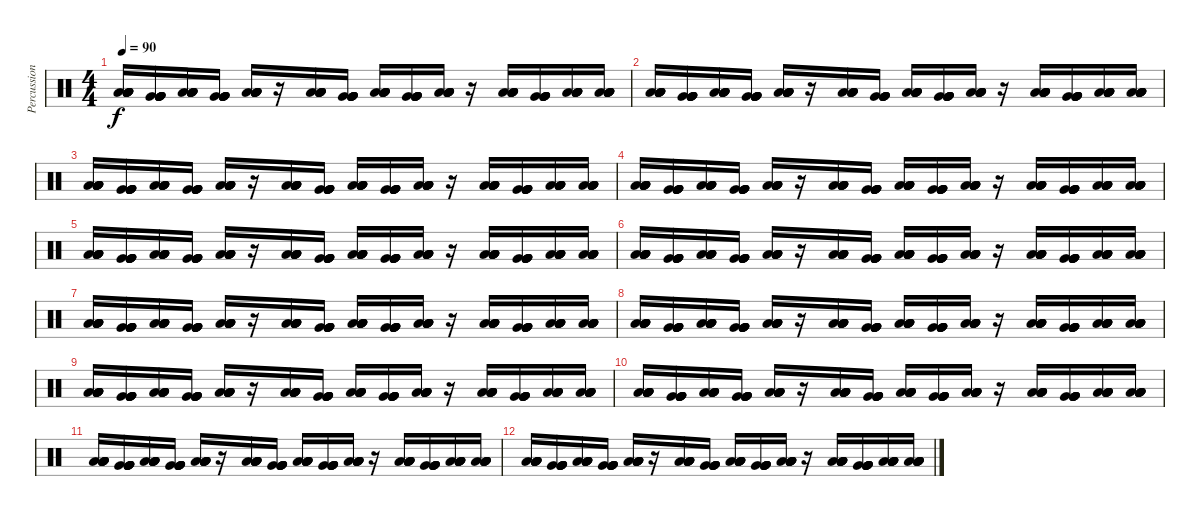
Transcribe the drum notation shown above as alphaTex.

\track ("Percussion 1" "Percussion") {instrument percussion}
\staff {score}
\articulation defaults
\ts (4 4)
\tempo 90
\clef neutral
\ks c
("Low Floor Tom (hit)" "Low Floor Tom (hit)" "Low Floor Tom (hit)" "Low Floor Tom (hit)" "Low Floor Tom (hit)" "Low Floor Tom (hit)").16{dy f} ("Very Low Tom (hit)" "Very Low Tom (hit)" "Very Low Tom (hit)" "Very Low Tom (hit)" "Very Low Tom (hit)" "Very Low Tom (hit)").16 ("Low Floor Tom (hit)" "Low Floor Tom (hit)" "Low Floor Tom (hit)" "Low Floor Tom (hit)" "Low Floor Tom (hit)" "Low Floor Tom (hit)").16 ("Very Low Tom (hit)" "Very Low Tom (hit)" "Very Low Tom (hit)" "Very Low Tom (hit)" "Very Low Tom (hit)" "Very Low Tom (hit)").16 ("Low Floor Tom (hit)" "Low Floor Tom (hit)" "Low Floor Tom (hit)" "Low Floor Tom (hit)" "Low Floor Tom (hit)" "Low Floor Tom (hit)").16 r.16 ("Low Floor Tom (hit)" "Low Floor Tom (hit)" "Low Floor Tom (hit)" "Low Floor Tom (hit)" "Low Floor Tom (hit)" "Low Floor Tom (hit)").16 ("Very Low Tom (hit)" "Very Low Tom (hit)" "Very Low Tom (hit)" "Very Low Tom (hit)" "Very Low Tom (hit)" "Very Low Tom (hit)").16 ("Low Floor Tom (hit)" "Low Floor Tom (hit)" "Low Floor Tom (hit)" "Low Floor Tom (hit)" "Low Floor Tom (hit)" "Low Floor Tom (hit)").16 ("Very Low Tom (hit)" "Very Low Tom (hit)" "Very Low Tom (hit)" "Very Low Tom (hit)" "Very Low Tom (hit)" "Very Low Tom (hit)").16 ("Low Floor Tom (hit)" "Low Floor Tom (hit)" "Low Floor Tom (hit)" "Low Floor Tom (hit)" "Low Floor Tom (hit)" "Low Floor Tom (hit)").16 r.16 ("Low Floor Tom (hit)" "Low Floor Tom (hit)" "Low Floor Tom (hit)" "Low Floor Tom (hit)" "Low Floor Tom (hit)" "Low Floor Tom (hit)").16 ("Very Low Tom (hit)" "Very Low Tom (hit)" "Very Low Tom (hit)" "Very Low Tom (hit)" "Very Low Tom (hit)" "Very Low Tom (hit)").16 ("Low Floor Tom (hit)" "Low Floor Tom (hit)" "Low Floor Tom (hit)" "Low Floor Tom (hit)" "Low Floor Tom (hit)" "Low Floor Tom (hit)").16 ("Low Floor Tom (hit)" "Low Floor Tom (hit)" "Low Floor Tom (hit)" "Low Floor Tom (hit)" "Low Floor Tom (hit)" "Low Floor Tom (hit)").16 |
("Low Floor Tom (hit)" "Low Floor Tom (hit)" "Low Floor Tom (hit)" "Low Floor Tom (hit)" "Low Floor Tom (hit)" "Low Floor Tom (hit)").16 ("Very Low Tom (hit)" "Very Low Tom (hit)" "Very Low Tom (hit)" "Very Low Tom (hit)" "Very Low Tom (hit)" "Very Low Tom (hit)").16 ("Low Floor Tom (hit)" "Low Floor Tom (hit)" "Low Floor Tom (hit)" "Low Floor Tom (hit)" "Low Floor Tom (hit)" "Low Floor Tom (hit)").16 ("Very Low Tom (hit)" "Very Low Tom (hit)" "Very Low Tom (hit)" "Very Low Tom (hit)" "Very Low Tom (hit)" "Very Low Tom (hit)").16 ("Low Floor Tom (hit)" "Low Floor Tom (hit)" "Low Floor Tom (hit)" "Low Floor Tom (hit)" "Low Floor Tom (hit)" "Low Floor Tom (hit)").16 r.16 ("Low Floor Tom (hit)" "Low Floor Tom (hit)" "Low Floor Tom (hit)" "Low Floor Tom (hit)" "Low Floor Tom (hit)" "Low Floor Tom (hit)").16 ("Very Low Tom (hit)" "Very Low Tom (hit)" "Very Low Tom (hit)" "Very Low Tom (hit)" "Very Low Tom (hit)" "Very Low Tom (hit)").16 ("Low Floor Tom (hit)" "Low Floor Tom (hit)" "Low Floor Tom (hit)" "Low Floor Tom (hit)" "Low Floor Tom (hit)" "Low Floor Tom (hit)").16 ("Very Low Tom (hit)" "Very Low Tom (hit)" "Very Low Tom (hit)" "Very Low Tom (hit)" "Very Low Tom (hit)" "Very Low Tom (hit)").16 ("Low Floor Tom (hit)" "Low Floor Tom (hit)" "Low Floor Tom (hit)" "Low Floor Tom (hit)" "Low Floor Tom (hit)" "Low Floor Tom (hit)").16 r.16 ("Low Floor Tom (hit)" "Low Floor Tom (hit)" "Low Floor Tom (hit)" "Low Floor Tom (hit)" "Low Floor Tom (hit)" "Low Floor Tom (hit)").16 ("Very Low Tom (hit)" "Very Low Tom (hit)" "Very Low Tom (hit)" "Very Low Tom (hit)" "Very Low Tom (hit)" "Very Low Tom (hit)").16 ("Low Floor Tom (hit)" "Low Floor Tom (hit)" "Low Floor Tom (hit)" "Low Floor Tom (hit)" "Low Floor Tom (hit)" "Low Floor Tom (hit)").16 ("Low Floor Tom (hit)" "Low Floor Tom (hit)" "Low Floor Tom (hit)" "Low Floor Tom (hit)" "Low Floor Tom (hit)" "Low Floor Tom (hit)").16 |
("Low Floor Tom (hit)" "Low Floor Tom (hit)" "Low Floor Tom (hit)" "Low Floor Tom (hit)" "Low Floor Tom (hit)" "Low Floor Tom (hit)").16 ("Very Low Tom (hit)" "Very Low Tom (hit)" "Very Low Tom (hit)" "Very Low Tom (hit)" "Very Low Tom (hit)" "Very Low Tom (hit)").16 ("Low Floor Tom (hit)" "Low Floor Tom (hit)" "Low Floor Tom (hit)" "Low Floor Tom (hit)" "Low Floor Tom (hit)" "Low Floor Tom (hit)").16 ("Very Low Tom (hit)" "Very Low Tom (hit)" "Very Low Tom (hit)" "Very Low Tom (hit)" "Very Low Tom (hit)" "Very Low Tom (hit)").16 ("Low Floor Tom (hit)" "Low Floor Tom (hit)" "Low Floor Tom (hit)" "Low Floor Tom (hit)" "Low Floor Tom (hit)" "Low Floor Tom (hit)").16 r.16 ("Low Floor Tom (hit)" "Low Floor Tom (hit)" "Low Floor Tom (hit)" "Low Floor Tom (hit)" "Low Floor Tom (hit)" "Low Floor Tom (hit)").16 ("Very Low Tom (hit)" "Very Low Tom (hit)" "Very Low Tom (hit)" "Very Low Tom (hit)" "Very Low Tom (hit)" "Very Low Tom (hit)").16 ("Low Floor Tom (hit)" "Low Floor Tom (hit)" "Low Floor Tom (hit)" "Low Floor Tom (hit)" "Low Floor Tom (hit)" "Low Floor Tom (hit)").16 ("Very Low Tom (hit)" "Very Low Tom (hit)" "Very Low Tom (hit)" "Very Low Tom (hit)" "Very Low Tom (hit)" "Very Low Tom (hit)").16 ("Low Floor Tom (hit)" "Low Floor Tom (hit)" "Low Floor Tom (hit)" "Low Floor Tom (hit)" "Low Floor Tom (hit)" "Low Floor Tom (hit)").16 r.16 ("Low Floor Tom (hit)" "Low Floor Tom (hit)" "Low Floor Tom (hit)" "Low Floor Tom (hit)" "Low Floor Tom (hit)" "Low Floor Tom (hit)").16 ("Very Low Tom (hit)" "Very Low Tom (hit)" "Very Low Tom (hit)" "Very Low Tom (hit)" "Very Low Tom (hit)" "Very Low Tom (hit)").16 ("Low Floor Tom (hit)" "Low Floor Tom (hit)" "Low Floor Tom (hit)" "Low Floor Tom (hit)" "Low Floor Tom (hit)" "Low Floor Tom (hit)").16 ("Low Floor Tom (hit)" "Low Floor Tom (hit)" "Low Floor Tom (hit)" "Low Floor Tom (hit)" "Low Floor Tom (hit)" "Low Floor Tom (hit)").16 |
("Low Floor Tom (hit)" "Low Floor Tom (hit)" "Low Floor Tom (hit)" "Low Floor Tom (hit)" "Low Floor Tom (hit)" "Low Floor Tom (hit)").16 ("Very Low Tom (hit)" "Very Low Tom (hit)" "Very Low Tom (hit)" "Very Low Tom (hit)" "Very Low Tom (hit)" "Very Low Tom (hit)").16 ("Low Floor Tom (hit)" "Low Floor Tom (hit)" "Low Floor Tom (hit)" "Low Floor Tom (hit)" "Low Floor Tom (hit)" "Low Floor Tom (hit)").16 ("Very Low Tom (hit)" "Very Low Tom (hit)" "Very Low Tom (hit)" "Very Low Tom (hit)" "Very Low Tom (hit)" "Very Low Tom (hit)").16 ("Low Floor Tom (hit)" "Low Floor Tom (hit)" "Low Floor Tom (hit)" "Low Floor Tom (hit)" "Low Floor Tom (hit)" "Low Floor Tom (hit)").16 r.16 ("Low Floor Tom (hit)" "Low Floor Tom (hit)" "Low Floor Tom (hit)" "Low Floor Tom (hit)" "Low Floor Tom (hit)" "Low Floor Tom (hit)").16 ("Very Low Tom (hit)" "Very Low Tom (hit)" "Very Low Tom (hit)" "Very Low Tom (hit)" "Very Low Tom (hit)" "Very Low Tom (hit)").16 ("Low Floor Tom (hit)" "Low Floor Tom (hit)" "Low Floor Tom (hit)" "Low Floor Tom (hit)" "Low Floor Tom (hit)" "Low Floor Tom (hit)").16 ("Very Low Tom (hit)" "Very Low Tom (hit)" "Very Low Tom (hit)" "Very Low Tom (hit)" "Very Low Tom (hit)" "Very Low Tom (hit)").16 ("Low Floor Tom (hit)" "Low Floor Tom (hit)" "Low Floor Tom (hit)" "Low Floor Tom (hit)" "Low Floor Tom (hit)" "Low Floor Tom (hit)").16 r.16 ("Low Floor Tom (hit)" "Low Floor Tom (hit)" "Low Floor Tom (hit)" "Low Floor Tom (hit)" "Low Floor Tom (hit)" "Low Floor Tom (hit)").16 ("Very Low Tom (hit)" "Very Low Tom (hit)" "Very Low Tom (hit)" "Very Low Tom (hit)" "Very Low Tom (hit)" "Very Low Tom (hit)").16 ("Low Floor Tom (hit)" "Low Floor Tom (hit)" "Low Floor Tom (hit)" "Low Floor Tom (hit)" "Low Floor Tom (hit)" "Low Floor Tom (hit)").16 ("Low Floor Tom (hit)" "Low Floor Tom (hit)" "Low Floor Tom (hit)" "Low Floor Tom (hit)" "Low Floor Tom (hit)" "Low Floor Tom (hit)").16 |
("Low Floor Tom (hit)" "Low Floor Tom (hit)" "Low Floor Tom (hit)" "Low Floor Tom (hit)" "Low Floor Tom (hit)" "Low Floor Tom (hit)").16 ("Very Low Tom (hit)" "Very Low Tom (hit)" "Very Low Tom (hit)" "Very Low Tom (hit)" "Very Low Tom (hit)" "Very Low Tom (hit)").16 ("Low Floor Tom (hit)" "Low Floor Tom (hit)" "Low Floor Tom (hit)" "Low Floor Tom (hit)" "Low Floor Tom (hit)" "Low Floor Tom (hit)").16 ("Very Low Tom (hit)" "Very Low Tom (hit)" "Very Low Tom (hit)" "Very Low Tom (hit)" "Very Low Tom (hit)" "Very Low Tom (hit)").16 ("Low Floor Tom (hit)" "Low Floor Tom (hit)" "Low Floor Tom (hit)" "Low Floor Tom (hit)" "Low Floor Tom (hit)" "Low Floor Tom (hit)").16 r.16 ("Low Floor Tom (hit)" "Low Floor Tom (hit)" "Low Floor Tom (hit)" "Low Floor Tom (hit)" "Low Floor Tom (hit)" "Low Floor Tom (hit)").16 ("Very Low Tom (hit)" "Very Low Tom (hit)" "Very Low Tom (hit)" "Very Low Tom (hit)" "Very Low Tom (hit)" "Very Low Tom (hit)").16 ("Low Floor Tom (hit)" "Low Floor Tom (hit)" "Low Floor Tom (hit)" "Low Floor Tom (hit)" "Low Floor Tom (hit)" "Low Floor Tom (hit)").16 ("Very Low Tom (hit)" "Very Low Tom (hit)" "Very Low Tom (hit)" "Very Low Tom (hit)" "Very Low Tom (hit)" "Very Low Tom (hit)").16 ("Low Floor Tom (hit)" "Low Floor Tom (hit)" "Low Floor Tom (hit)" "Low Floor Tom (hit)" "Low Floor Tom (hit)" "Low Floor Tom (hit)").16 r.16 ("Low Floor Tom (hit)" "Low Floor Tom (hit)" "Low Floor Tom (hit)" "Low Floor Tom (hit)" "Low Floor Tom (hit)" "Low Floor Tom (hit)").16 ("Very Low Tom (hit)" "Very Low Tom (hit)" "Very Low Tom (hit)" "Very Low Tom (hit)" "Very Low Tom (hit)" "Very Low Tom (hit)").16 ("Low Floor Tom (hit)" "Low Floor Tom (hit)" "Low Floor Tom (hit)" "Low Floor Tom (hit)" "Low Floor Tom (hit)" "Low Floor Tom (hit)").16 ("Low Floor Tom (hit)" "Low Floor Tom (hit)" "Low Floor Tom (hit)" "Low Floor Tom (hit)" "Low Floor Tom (hit)" "Low Floor Tom (hit)").16 |
("Low Floor Tom (hit)" "Low Floor Tom (hit)" "Low Floor Tom (hit)" "Low Floor Tom (hit)" "Low Floor Tom (hit)" "Low Floor Tom (hit)").16 ("Very Low Tom (hit)" "Very Low Tom (hit)" "Very Low Tom (hit)" "Very Low Tom (hit)" "Very Low Tom (hit)" "Very Low Tom (hit)").16 ("Low Floor Tom (hit)" "Low Floor Tom (hit)" "Low Floor Tom (hit)" "Low Floor Tom (hit)" "Low Floor Tom (hit)" "Low Floor Tom (hit)").16 ("Very Low Tom (hit)" "Very Low Tom (hit)" "Very Low Tom (hit)" "Very Low Tom (hit)" "Very Low Tom (hit)" "Very Low Tom (hit)").16 ("Low Floor Tom (hit)" "Low Floor Tom (hit)" "Low Floor Tom (hit)" "Low Floor Tom (hit)" "Low Floor Tom (hit)" "Low Floor Tom (hit)").16 r.16 ("Low Floor Tom (hit)" "Low Floor Tom (hit)" "Low Floor Tom (hit)" "Low Floor Tom (hit)" "Low Floor Tom (hit)" "Low Floor Tom (hit)").16 ("Very Low Tom (hit)" "Very Low Tom (hit)" "Very Low Tom (hit)" "Very Low Tom (hit)" "Very Low Tom (hit)" "Very Low Tom (hit)").16 ("Low Floor Tom (hit)" "Low Floor Tom (hit)" "Low Floor Tom (hit)" "Low Floor Tom (hit)" "Low Floor Tom (hit)" "Low Floor Tom (hit)").16 ("Very Low Tom (hit)" "Very Low Tom (hit)" "Very Low Tom (hit)" "Very Low Tom (hit)" "Very Low Tom (hit)" "Very Low Tom (hit)").16 ("Low Floor Tom (hit)" "Low Floor Tom (hit)" "Low Floor Tom (hit)" "Low Floor Tom (hit)" "Low Floor Tom (hit)" "Low Floor Tom (hit)").16 r.16 ("Low Floor Tom (hit)" "Low Floor Tom (hit)" "Low Floor Tom (hit)" "Low Floor Tom (hit)" "Low Floor Tom (hit)" "Low Floor Tom (hit)").16 ("Very Low Tom (hit)" "Very Low Tom (hit)" "Very Low Tom (hit)" "Very Low Tom (hit)" "Very Low Tom (hit)" "Very Low Tom (hit)").16 ("Low Floor Tom (hit)" "Low Floor Tom (hit)" "Low Floor Tom (hit)" "Low Floor Tom (hit)" "Low Floor Tom (hit)" "Low Floor Tom (hit)").16 ("Low Floor Tom (hit)" "Low Floor Tom (hit)" "Low Floor Tom (hit)" "Low Floor Tom (hit)" "Low Floor Tom (hit)" "Low Floor Tom (hit)").16 |
("Low Floor Tom (hit)" "Low Floor Tom (hit)" "Low Floor Tom (hit)" "Low Floor Tom (hit)" "Low Floor Tom (hit)" "Low Floor Tom (hit)").16 ("Very Low Tom (hit)" "Very Low Tom (hit)" "Very Low Tom (hit)" "Very Low Tom (hit)" "Very Low Tom (hit)" "Very Low Tom (hit)").16 ("Low Floor Tom (hit)" "Low Floor Tom (hit)" "Low Floor Tom (hit)" "Low Floor Tom (hit)" "Low Floor Tom (hit)" "Low Floor Tom (hit)").16 ("Very Low Tom (hit)" "Very Low Tom (hit)" "Very Low Tom (hit)" "Very Low Tom (hit)" "Very Low Tom (hit)" "Very Low Tom (hit)").16 ("Low Floor Tom (hit)" "Low Floor Tom (hit)" "Low Floor Tom (hit)" "Low Floor Tom (hit)" "Low Floor Tom (hit)" "Low Floor Tom (hit)").16 r.16 ("Low Floor Tom (hit)" "Low Floor Tom (hit)" "Low Floor Tom (hit)" "Low Floor Tom (hit)" "Low Floor Tom (hit)" "Low Floor Tom (hit)").16 ("Very Low Tom (hit)" "Very Low Tom (hit)" "Very Low Tom (hit)" "Very Low Tom (hit)" "Very Low Tom (hit)" "Very Low Tom (hit)").16 ("Low Floor Tom (hit)" "Low Floor Tom (hit)" "Low Floor Tom (hit)" "Low Floor Tom (hit)" "Low Floor Tom (hit)" "Low Floor Tom (hit)").16 ("Very Low Tom (hit)" "Very Low Tom (hit)" "Very Low Tom (hit)" "Very Low Tom (hit)" "Very Low Tom (hit)" "Very Low Tom (hit)").16 ("Low Floor Tom (hit)" "Low Floor Tom (hit)" "Low Floor Tom (hit)" "Low Floor Tom (hit)" "Low Floor Tom (hit)" "Low Floor Tom (hit)").16 r.16 ("Low Floor Tom (hit)" "Low Floor Tom (hit)" "Low Floor Tom (hit)" "Low Floor Tom (hit)" "Low Floor Tom (hit)" "Low Floor Tom (hit)").16 ("Very Low Tom (hit)" "Very Low Tom (hit)" "Very Low Tom (hit)" "Very Low Tom (hit)" "Very Low Tom (hit)" "Very Low Tom (hit)").16 ("Low Floor Tom (hit)" "Low Floor Tom (hit)" "Low Floor Tom (hit)" "Low Floor Tom (hit)" "Low Floor Tom (hit)" "Low Floor Tom (hit)").16 ("Low Floor Tom (hit)" "Low Floor Tom (hit)" "Low Floor Tom (hit)" "Low Floor Tom (hit)" "Low Floor Tom (hit)" "Low Floor Tom (hit)").16 |
("Low Floor Tom (hit)" "Low Floor Tom (hit)" "Low Floor Tom (hit)" "Low Floor Tom (hit)" "Low Floor Tom (hit)" "Low Floor Tom (hit)").16 ("Very Low Tom (hit)" "Very Low Tom (hit)" "Very Low Tom (hit)" "Very Low Tom (hit)" "Very Low Tom (hit)" "Very Low Tom (hit)").16 ("Low Floor Tom (hit)" "Low Floor Tom (hit)" "Low Floor Tom (hit)" "Low Floor Tom (hit)" "Low Floor Tom (hit)" "Low Floor Tom (hit)").16 ("Very Low Tom (hit)" "Very Low Tom (hit)" "Very Low Tom (hit)" "Very Low Tom (hit)" "Very Low Tom (hit)" "Very Low Tom (hit)").16 ("Low Floor Tom (hit)" "Low Floor Tom (hit)" "Low Floor Tom (hit)" "Low Floor Tom (hit)" "Low Floor Tom (hit)" "Low Floor Tom (hit)").16 r.16 ("Low Floor Tom (hit)" "Low Floor Tom (hit)" "Low Floor Tom (hit)" "Low Floor Tom (hit)" "Low Floor Tom (hit)" "Low Floor Tom (hit)").16 ("Very Low Tom (hit)" "Very Low Tom (hit)" "Very Low Tom (hit)" "Very Low Tom (hit)" "Very Low Tom (hit)" "Very Low Tom (hit)").16 ("Low Floor Tom (hit)" "Low Floor Tom (hit)" "Low Floor Tom (hit)" "Low Floor Tom (hit)" "Low Floor Tom (hit)" "Low Floor Tom (hit)").16 ("Very Low Tom (hit)" "Very Low Tom (hit)" "Very Low Tom (hit)" "Very Low Tom (hit)" "Very Low Tom (hit)" "Very Low Tom (hit)").16 ("Low Floor Tom (hit)" "Low Floor Tom (hit)" "Low Floor Tom (hit)" "Low Floor Tom (hit)" "Low Floor Tom (hit)" "Low Floor Tom (hit)").16 r.16 ("Low Floor Tom (hit)" "Low Floor Tom (hit)" "Low Floor Tom (hit)" "Low Floor Tom (hit)" "Low Floor Tom (hit)" "Low Floor Tom (hit)").16 ("Very Low Tom (hit)" "Very Low Tom (hit)" "Very Low Tom (hit)" "Very Low Tom (hit)" "Very Low Tom (hit)" "Very Low Tom (hit)").16 ("Low Floor Tom (hit)" "Low Floor Tom (hit)" "Low Floor Tom (hit)" "Low Floor Tom (hit)" "Low Floor Tom (hit)" "Low Floor Tom (hit)").16 ("Low Floor Tom (hit)" "Low Floor Tom (hit)" "Low Floor Tom (hit)" "Low Floor Tom (hit)" "Low Floor Tom (hit)" "Low Floor Tom (hit)").16 |
("Low Floor Tom (hit)" "Low Floor Tom (hit)" "Low Floor Tom (hit)" "Low Floor Tom (hit)" "Low Floor Tom (hit)" "Low Floor Tom (hit)").16 ("Very Low Tom (hit)" "Very Low Tom (hit)" "Very Low Tom (hit)" "Very Low Tom (hit)" "Very Low Tom (hit)" "Very Low Tom (hit)").16 ("Low Floor Tom (hit)" "Low Floor Tom (hit)" "Low Floor Tom (hit)" "Low Floor Tom (hit)" "Low Floor Tom (hit)" "Low Floor Tom (hit)").16 ("Very Low Tom (hit)" "Very Low Tom (hit)" "Very Low Tom (hit)" "Very Low Tom (hit)" "Very Low Tom (hit)" "Very Low Tom (hit)").16 ("Low Floor Tom (hit)" "Low Floor Tom (hit)" "Low Floor Tom (hit)" "Low Floor Tom (hit)" "Low Floor Tom (hit)" "Low Floor Tom (hit)").16 r.16 ("Low Floor Tom (hit)" "Low Floor Tom (hit)" "Low Floor Tom (hit)" "Low Floor Tom (hit)" "Low Floor Tom (hit)" "Low Floor Tom (hit)").16 ("Very Low Tom (hit)" "Very Low Tom (hit)" "Very Low Tom (hit)" "Very Low Tom (hit)" "Very Low Tom (hit)" "Very Low Tom (hit)").16 ("Low Floor Tom (hit)" "Low Floor Tom (hit)" "Low Floor Tom (hit)" "Low Floor Tom (hit)" "Low Floor Tom (hit)" "Low Floor Tom (hit)").16 ("Very Low Tom (hit)" "Very Low Tom (hit)" "Very Low Tom (hit)" "Very Low Tom (hit)" "Very Low Tom (hit)" "Very Low Tom (hit)").16 ("Low Floor Tom (hit)" "Low Floor Tom (hit)" "Low Floor Tom (hit)" "Low Floor Tom (hit)" "Low Floor Tom (hit)" "Low Floor Tom (hit)").16 r.16 ("Low Floor Tom (hit)" "Low Floor Tom (hit)" "Low Floor Tom (hit)" "Low Floor Tom (hit)" "Low Floor Tom (hit)" "Low Floor Tom (hit)").16 ("Very Low Tom (hit)" "Very Low Tom (hit)" "Very Low Tom (hit)" "Very Low Tom (hit)" "Very Low Tom (hit)" "Very Low Tom (hit)").16 ("Low Floor Tom (hit)" "Low Floor Tom (hit)" "Low Floor Tom (hit)" "Low Floor Tom (hit)" "Low Floor Tom (hit)" "Low Floor Tom (hit)").16 ("Low Floor Tom (hit)" "Low Floor Tom (hit)" "Low Floor Tom (hit)" "Low Floor Tom (hit)" "Low Floor Tom (hit)" "Low Floor Tom (hit)").16 |
("Low Floor Tom (hit)" "Low Floor Tom (hit)" "Low Floor Tom (hit)" "Low Floor Tom (hit)" "Low Floor Tom (hit)" "Low Floor Tom (hit)").16 ("Very Low Tom (hit)" "Very Low Tom (hit)" "Very Low Tom (hit)" "Very Low Tom (hit)" "Very Low Tom (hit)" "Very Low Tom (hit)").16 ("Low Floor Tom (hit)" "Low Floor Tom (hit)" "Low Floor Tom (hit)" "Low Floor Tom (hit)" "Low Floor Tom (hit)" "Low Floor Tom (hit)").16 ("Very Low Tom (hit)" "Very Low Tom (hit)" "Very Low Tom (hit)" "Very Low Tom (hit)" "Very Low Tom (hit)" "Very Low Tom (hit)").16 ("Low Floor Tom (hit)" "Low Floor Tom (hit)" "Low Floor Tom (hit)" "Low Floor Tom (hit)" "Low Floor Tom (hit)" "Low Floor Tom (hit)").16 r.16 ("Low Floor Tom (hit)" "Low Floor Tom (hit)" "Low Floor Tom (hit)" "Low Floor Tom (hit)" "Low Floor Tom (hit)" "Low Floor Tom (hit)").16 ("Very Low Tom (hit)" "Very Low Tom (hit)" "Very Low Tom (hit)" "Very Low Tom (hit)" "Very Low Tom (hit)" "Very Low Tom (hit)").16 ("Low Floor Tom (hit)" "Low Floor Tom (hit)" "Low Floor Tom (hit)" "Low Floor Tom (hit)" "Low Floor Tom (hit)" "Low Floor Tom (hit)").16 ("Very Low Tom (hit)" "Very Low Tom (hit)" "Very Low Tom (hit)" "Very Low Tom (hit)" "Very Low Tom (hit)" "Very Low Tom (hit)").16 ("Low Floor Tom (hit)" "Low Floor Tom (hit)" "Low Floor Tom (hit)" "Low Floor Tom (hit)" "Low Floor Tom (hit)" "Low Floor Tom (hit)").16 r.16 ("Low Floor Tom (hit)" "Low Floor Tom (hit)" "Low Floor Tom (hit)" "Low Floor Tom (hit)" "Low Floor Tom (hit)" "Low Floor Tom (hit)").16 ("Very Low Tom (hit)" "Very Low Tom (hit)" "Very Low Tom (hit)" "Very Low Tom (hit)" "Very Low Tom (hit)" "Very Low Tom (hit)").16 ("Low Floor Tom (hit)" "Low Floor Tom (hit)" "Low Floor Tom (hit)" "Low Floor Tom (hit)" "Low Floor Tom (hit)" "Low Floor Tom (hit)").16 ("Low Floor Tom (hit)" "Low Floor Tom (hit)" "Low Floor Tom (hit)" "Low Floor Tom (hit)" "Low Floor Tom (hit)" "Low Floor Tom (hit)").16 |
("Low Floor Tom (hit)" "Low Floor Tom (hit)" "Low Floor Tom (hit)" "Low Floor Tom (hit)" "Low Floor Tom (hit)" "Low Floor Tom (hit)").16 ("Very Low Tom (hit)" "Very Low Tom (hit)" "Very Low Tom (hit)" "Very Low Tom (hit)" "Very Low Tom (hit)" "Very Low Tom (hit)").16 ("Low Floor Tom (hit)" "Low Floor Tom (hit)" "Low Floor Tom (hit)" "Low Floor Tom (hit)" "Low Floor Tom (hit)" "Low Floor Tom (hit)").16 ("Very Low Tom (hit)" "Very Low Tom (hit)" "Very Low Tom (hit)" "Very Low Tom (hit)" "Very Low Tom (hit)" "Very Low Tom (hit)").16 ("Low Floor Tom (hit)" "Low Floor Tom (hit)" "Low Floor Tom (hit)" "Low Floor Tom (hit)" "Low Floor Tom (hit)" "Low Floor Tom (hit)").16 r.16 ("Low Floor Tom (hit)" "Low Floor Tom (hit)" "Low Floor Tom (hit)" "Low Floor Tom (hit)" "Low Floor Tom (hit)" "Low Floor Tom (hit)").16 ("Very Low Tom (hit)" "Very Low Tom (hit)" "Very Low Tom (hit)" "Very Low Tom (hit)" "Very Low Tom (hit)" "Very Low Tom (hit)").16 ("Low Floor Tom (hit)" "Low Floor Tom (hit)" "Low Floor Tom (hit)" "Low Floor Tom (hit)" "Low Floor Tom (hit)" "Low Floor Tom (hit)").16 ("Very Low Tom (hit)" "Very Low Tom (hit)" "Very Low Tom (hit)" "Very Low Tom (hit)" "Very Low Tom (hit)" "Very Low Tom (hit)").16 ("Low Floor Tom (hit)" "Low Floor Tom (hit)" "Low Floor Tom (hit)" "Low Floor Tom (hit)" "Low Floor Tom (hit)" "Low Floor Tom (hit)").16 r.16 ("Low Floor Tom (hit)" "Low Floor Tom (hit)" "Low Floor Tom (hit)" "Low Floor Tom (hit)" "Low Floor Tom (hit)" "Low Floor Tom (hit)").16 ("Very Low Tom (hit)" "Very Low Tom (hit)" "Very Low Tom (hit)" "Very Low Tom (hit)" "Very Low Tom (hit)" "Very Low Tom (hit)").16 ("Low Floor Tom (hit)" "Low Floor Tom (hit)" "Low Floor Tom (hit)" "Low Floor Tom (hit)" "Low Floor Tom (hit)" "Low Floor Tom (hit)").16 ("Low Floor Tom (hit)" "Low Floor Tom (hit)" "Low Floor Tom (hit)" "Low Floor Tom (hit)" "Low Floor Tom (hit)" "Low Floor Tom (hit)").16 |
("Low Floor Tom (hit)" "Low Floor Tom (hit)" "Low Floor Tom (hit)" "Low Floor Tom (hit)" "Low Floor Tom (hit)" "Low Floor Tom (hit)").16 ("Very Low Tom (hit)" "Very Low Tom (hit)" "Very Low Tom (hit)" "Very Low Tom (hit)" "Very Low Tom (hit)" "Very Low Tom (hit)").16 ("Low Floor Tom (hit)" "Low Floor Tom (hit)" "Low Floor Tom (hit)" "Low Floor Tom (hit)" "Low Floor Tom (hit)" "Low Floor Tom (hit)").16 ("Very Low Tom (hit)" "Very Low Tom (hit)" "Very Low Tom (hit)" "Very Low Tom (hit)" "Very Low Tom (hit)" "Very Low Tom (hit)").16 ("Low Floor Tom (hit)" "Low Floor Tom (hit)" "Low Floor Tom (hit)" "Low Floor Tom (hit)" "Low Floor Tom (hit)" "Low Floor Tom (hit)").16 r.16 ("Low Floor Tom (hit)" "Low Floor Tom (hit)" "Low Floor Tom (hit)" "Low Floor Tom (hit)" "Low Floor Tom (hit)" "Low Floor Tom (hit)").16 ("Very Low Tom (hit)" "Very Low Tom (hit)" "Very Low Tom (hit)" "Very Low Tom (hit)" "Very Low Tom (hit)" "Very Low Tom (hit)").16 ("Low Floor Tom (hit)" "Low Floor Tom (hit)" "Low Floor Tom (hit)" "Low Floor Tom (hit)" "Low Floor Tom (hit)" "Low Floor Tom (hit)").16 ("Very Low Tom (hit)" "Very Low Tom (hit)" "Very Low Tom (hit)" "Very Low Tom (hit)" "Very Low Tom (hit)" "Very Low Tom (hit)").16 ("Low Floor Tom (hit)" "Low Floor Tom (hit)" "Low Floor Tom (hit)" "Low Floor Tom (hit)" "Low Floor Tom (hit)" "Low Floor Tom (hit)").16 r.16 ("Low Floor Tom (hit)" "Low Floor Tom (hit)" "Low Floor Tom (hit)" "Low Floor Tom (hit)" "Low Floor Tom (hit)" "Low Floor Tom (hit)").16 ("Very Low Tom (hit)" "Very Low Tom (hit)" "Very Low Tom (hit)" "Very Low Tom (hit)" "Very Low Tom (hit)" "Very Low Tom (hit)").16 ("Low Floor Tom (hit)" "Low Floor Tom (hit)" "Low Floor Tom (hit)" "Low Floor Tom (hit)" "Low Floor Tom (hit)" "Low Floor Tom (hit)").16 ("Low Floor Tom (hit)" "Low Floor Tom (hit)" "Low Floor Tom (hit)" "Low Floor Tom (hit)" "Low Floor Tom (hit)" "Low Floor Tom (hit)").16
